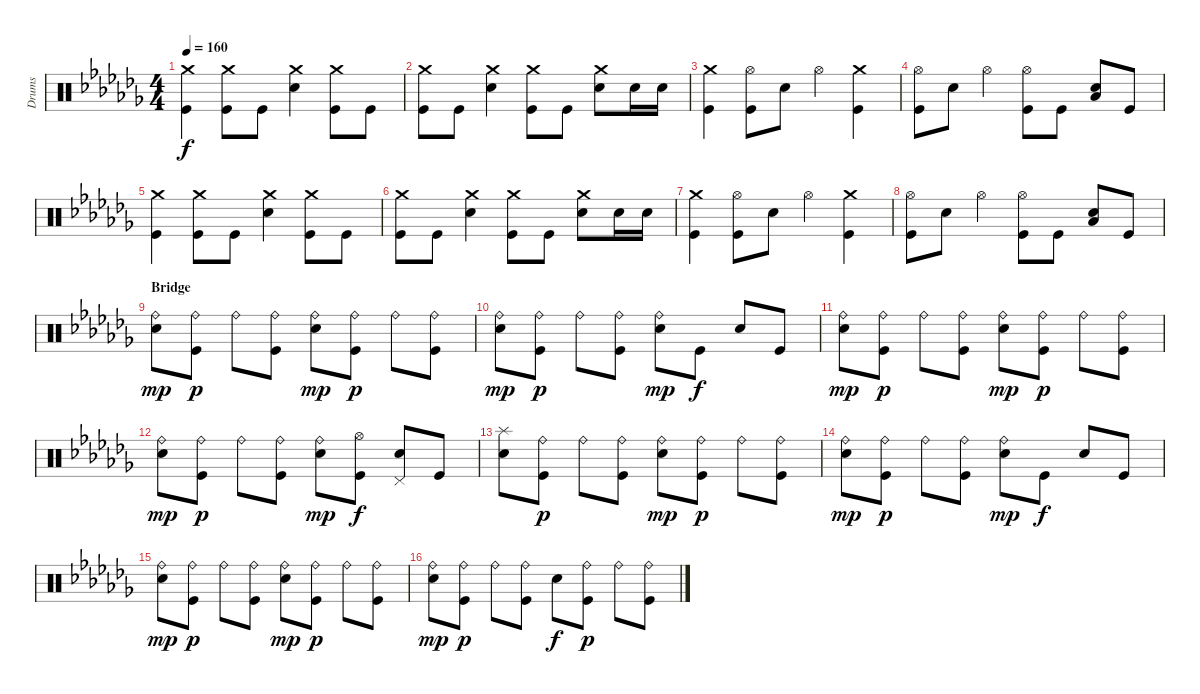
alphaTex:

\track ("Drums" "Drums") {instrument percussion}
\staff {score}
\articulation defaults
\ts (4 4)
\tempo 160
\clef neutral
\ks cb
("Crash medium (hit)" "Kick (hit)").4{dy f} ("Crash medium (hit)" "Kick (hit)").8 "Kick (hit)".8 ("Crash medium (hit)" "Electric Snare (hit)").4 ("Crash medium (hit)" "Kick (hit)").8 "Kick (hit)".8 |
("Crash medium (hit)" "Kick (hit)").8 "Kick (hit)".8 ("Crash medium (hit)" "Electric Snare (hit)").4 ("Crash medium (hit)" "Kick (hit)").8 "Kick (hit)".8 ("Crash medium (hit)" "Electric Snare (hit)").8 "Electric Snare (hit)".16 "Electric Snare (hit)".16 |
("Crash medium (hit)" "Kick (hit)").4 ("Hi-Hat (open)" "Kick (hit)").8 "Electric Snare (hit)".8 "Hi-Hat (open)".4 ("Crash medium (hit)" "Kick (hit)").4 |
("Hi-Hat (open)" "Kick (hit)").8 "Electric Snare (hit)".8 "Hi-Hat (open)".4 ("Hi-Hat (open)" "Kick (hit)").8 "Kick (hit)".8 ("Electric Snare (hit)" "Low Floor Tom (hit)").8 "Kick (hit)".8 |
("Crash medium (hit)" "Kick (hit)").4 ("Crash medium (hit)" "Kick (hit)").8 "Kick (hit)".8 ("Crash medium (hit)" "Electric Snare (hit)").4 ("Crash medium (hit)" "Kick (hit)").8 "Kick (hit)".8 |
("Crash medium (hit)" "Kick (hit)").8 "Kick (hit)".8 ("Crash medium (hit)" "Electric Snare (hit)").4 ("Crash medium (hit)" "Kick (hit)").8 "Kick (hit)".8 ("Crash medium (hit)" "Electric Snare (hit)").8 "Electric Snare (hit)".16 "Electric Snare (hit)".16 |
("Crash medium (hit)" "Kick (hit)").4 ("Hi-Hat (open)" "Kick (hit)").8 "Electric Snare (hit)".8 "Hi-Hat (open)".4 ("Crash medium (hit)" "Kick (hit)").4 |
("Hi-Hat (open)" "Kick (hit)").8 "Electric Snare (hit)".8 "Hi-Hat (open)".4 ("Hi-Hat (open)" "Kick (hit)").8 "Kick (hit)".8 ("Electric Snare (hit)" "Low Floor Tom (hit)").8 "Kick (hit)".8 |
\section ("" "Bridge")
("Ride (bell)" "Electric Snare (hit)").8{dy mp} ("Ride (bell)" "Kick (hit)").8{dy p} "Ride (bell)".8 ("Ride (bell)" "Kick (hit)").8 ("Ride (bell)" "Electric Snare (hit)").8{dy mp} ("Ride (bell)" "Kick (hit)").8{dy p} "Ride (bell)".8 ("Ride (bell)" "Kick (hit)").8 |
("Ride (bell)" "Electric Snare (hit)").8{dy mp} ("Ride (bell)" "Kick (hit)").8{dy p} "Ride (bell)".8 ("Ride (bell)" "Kick (hit)").8 ("Ride (bell)" "Electric Snare (hit)").8{dy mp} "Kick (hit)".8{dy f} "Electric Snare (hit)".8 "Kick (hit)".8 |
("Ride (bell)" "Electric Snare (hit)").8{dy mp} ("Ride (bell)" "Kick (hit)").8{dy p} "Ride (bell)".8 ("Ride (bell)" "Kick (hit)").8 ("Ride (bell)" "Electric Snare (hit)").8{dy mp} ("Ride (bell)" "Kick (hit)").8{dy p} "Ride (bell)".8 ("Ride (bell)" "Kick (hit)").8 |
("Ride (bell)" "Electric Snare (hit)").8{dy mp} ("Ride (bell)" "Kick (hit)").8{dy p} "Ride (bell)".8 ("Ride (bell)" "Kick (hit)").8 ("Ride (bell)" "Electric Snare (hit)").8{dy mp} ("Hi-Hat (open)" "Kick (hit)").8{dy f} ("Electric Snare (hit)" "Pedal Hi-Hat (hit)").8 "Kick (hit)".8 |
("Splash (hit)" "Electric Snare (hit)").8 ("Ride (bell)" "Kick (hit)").8{dy p} "Ride (bell)".8 ("Ride (bell)" "Kick (hit)").8 ("Ride (bell)" "Electric Snare (hit)").8{dy mp} ("Ride (bell)" "Kick (hit)").8{dy p} "Ride (bell)".8 ("Ride (bell)" "Kick (hit)").8 |
("Ride (bell)" "Electric Snare (hit)").8{dy mp} ("Ride (bell)" "Kick (hit)").8{dy p} "Ride (bell)".8 ("Ride (bell)" "Kick (hit)").8 ("Ride (bell)" "Electric Snare (hit)").8{dy mp} "Kick (hit)".8{dy f} "Electric Snare (hit)".8 "Kick (hit)".8 |
("Ride (bell)" "Electric Snare (hit)").8{dy mp} ("Ride (bell)" "Kick (hit)").8{dy p} "Ride (bell)".8 ("Ride (bell)" "Kick (hit)").8 ("Ride (bell)" "Electric Snare (hit)").8{dy mp} ("Ride (bell)" "Kick (hit)").8{dy p} "Ride (bell)".8 ("Ride (bell)" "Kick (hit)").8 |
("Ride (bell)" "Electric Snare (hit)").8{dy mp} ("Ride (bell)" "Kick (hit)").8{dy p} "Ride (bell)".8 ("Ride (bell)" "Kick (hit)").8 "Electric Snare (hit)".8{dy f} ("Ride (bell)" "Kick (hit)").8{dy p} "Ride (bell)".8 ("Ride (bell)" "Kick (hit)").8
